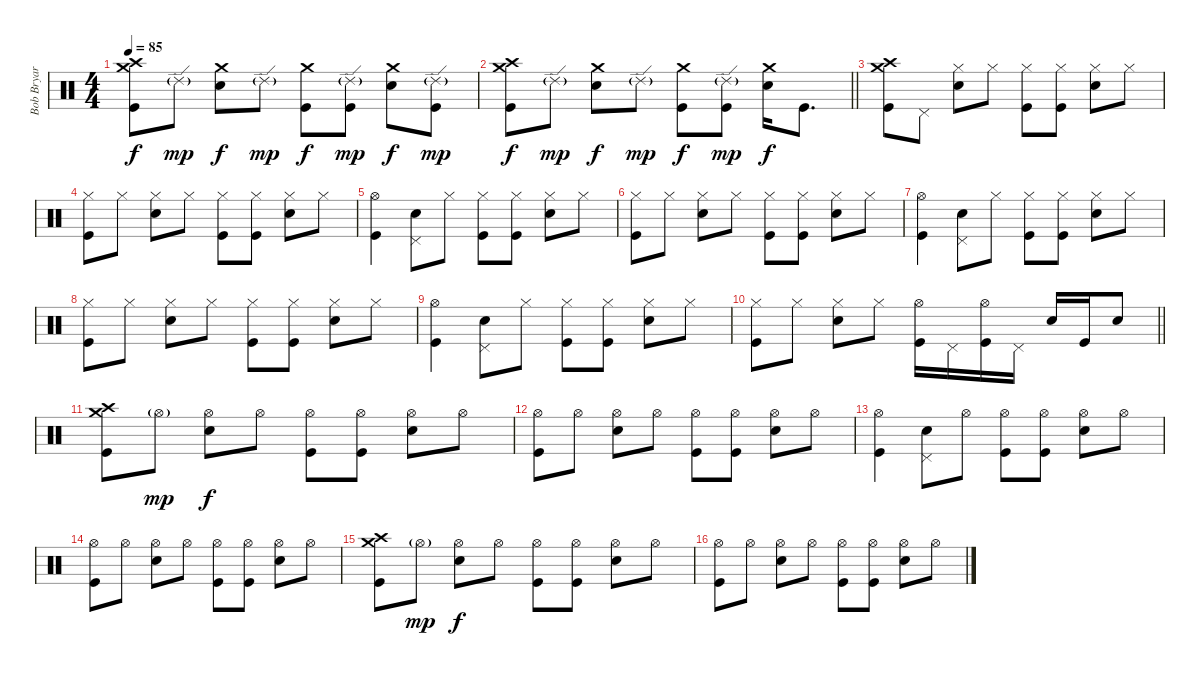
\track ("Bob Bryar [Drums]" "Bob Bryar ") {instrument percussion}
\staff {score}
\articulation defaults
\ts (4 4)
\tempo 85
\clef neutral
\ks c
("Crash high (hit)" "Crash medium (hit)" "Kick (hit)").8{dy f} "Ride (edge) 2"{g}.8{dy mp} ("Crash medium (hit)" "Electric Snare (hit)").8{dy f} "Ride (edge) 2"{g}.8{dy mp} ("Crash medium (hit)" "Kick (hit)").8{dy f} ("Ride (edge) 2"{g} "Kick (hit)").8{dy mp} ("Crash medium (hit)" "Electric Snare (hit)").8{dy f} ("Ride (edge) 2"{g} "Kick (hit)").8{dy mp} |
\barLineRight lightlight
("Crash high (hit)" "Crash medium (hit)" "Kick (hit)").8{dy f} "Ride (edge) 2"{g}.8{dy mp} ("Crash medium (hit)" "Electric Snare (hit)").8{dy f} "Ride (edge) 2"{g}.8{dy mp} ("Crash medium (hit)" "Kick (hit)").8{dy f} ("Ride (edge) 2"{g} "Kick (hit)").8{dy mp} ("Crash medium (hit)" "Electric Snare (hit)").16{dy f} "Kick (hit)".8{d} |
("Crash high (hit)" "Crash medium (hit)" "Kick (hit)").8 "Pedal Hi-Hat (hit)".8 ("Hi-Hat (closed)" "Electric Snare (hit)").8 "Hi-Hat (closed)".8 ("Hi-Hat (closed)" "Kick (hit)").8 ("Hi-Hat (closed)" "Kick (hit)").8 ("Hi-Hat (closed)" "Electric Snare (hit)").8 "Hi-Hat (closed)".8 |
("Hi-Hat (closed)" "Kick (hit)").8 "Hi-Hat (closed)".8 ("Hi-Hat (closed)" "Electric Snare (hit)").8 "Hi-Hat (closed)".8 ("Hi-Hat (closed)" "Kick (hit)").8 ("Hi-Hat (closed)" "Kick (hit)").8 ("Hi-Hat (closed)" "Electric Snare (hit)").8 "Hi-Hat (closed)".8 |
("Hi-Hat (open)" "Kick (hit)").4 ("Pedal Hi-Hat (hit)" "Electric Snare (hit)").8 "Hi-Hat (closed)".8 ("Hi-Hat (closed)" "Kick (hit)").8 ("Hi-Hat (closed)" "Kick (hit)").8 ("Hi-Hat (closed)" "Electric Snare (hit)").8 "Hi-Hat (closed)".8 |
("Hi-Hat (closed)" "Kick (hit)").8 "Hi-Hat (closed)".8 ("Hi-Hat (closed)" "Electric Snare (hit)").8 "Hi-Hat (closed)".8 ("Hi-Hat (closed)" "Kick (hit)").8 ("Hi-Hat (closed)" "Kick (hit)").8 ("Hi-Hat (closed)" "Electric Snare (hit)").8 "Hi-Hat (closed)".8 |
("Hi-Hat (open)" "Kick (hit)").4 ("Pedal Hi-Hat (hit)" "Electric Snare (hit)").8 "Hi-Hat (closed)".8 ("Hi-Hat (closed)" "Kick (hit)").8 ("Hi-Hat (closed)" "Kick (hit)").8 ("Hi-Hat (closed)" "Electric Snare (hit)").8 "Hi-Hat (closed)".8 |
("Hi-Hat (closed)" "Kick (hit)").8 "Hi-Hat (closed)".8 ("Hi-Hat (closed)" "Electric Snare (hit)").8 "Hi-Hat (closed)".8 ("Hi-Hat (closed)" "Kick (hit)").8 ("Hi-Hat (closed)" "Kick (hit)").8 ("Hi-Hat (closed)" "Electric Snare (hit)").8 "Hi-Hat (closed)".8 |
("Hi-Hat (open)" "Kick (hit)").4 ("Pedal Hi-Hat (hit)" "Electric Snare (hit)").8 "Hi-Hat (closed)".8 ("Hi-Hat (closed)" "Kick (hit)").8 ("Hi-Hat (closed)" "Kick (hit)").8 ("Hi-Hat (closed)" "Electric Snare (hit)").8 "Hi-Hat (closed)".8 |
\barLineRight lightlight
("Hi-Hat (closed)" "Kick (hit)").8 "Hi-Hat (closed)".8 ("Hi-Hat (closed)" "Electric Snare (hit)").8 "Hi-Hat (closed)".8 ("Hi-Hat (open)" "Kick (hit)").16 "Pedal Hi-Hat (hit)".16 ("Hi-Hat (open)" "Kick (hit)").16 "Pedal Hi-Hat (hit)".16 "Electric Snare (hit)".16 "Kick (hit)".16 "Electric Snare (hit)".8 |
("Crash high (hit)" "Crash medium (hit)" "Kick (hit)").8 "Hi-Hat (open)"{g}.8{dy mp} ("Hi-Hat (open)" "Electric Snare (hit)").8{dy f} "Hi-Hat (open)".8 ("Hi-Hat (open)" "Kick (hit)").8 ("Hi-Hat (open)" "Kick (hit)").8 ("Hi-Hat (open)" "Electric Snare (hit)").8 "Hi-Hat (open)".8 |
("Hi-Hat (open)" "Kick (hit)").8 "Hi-Hat (open)".8 ("Hi-Hat (open)" "Electric Snare (hit)").8 "Hi-Hat (open)".8 ("Hi-Hat (open)" "Kick (hit)").8 ("Hi-Hat (open)" "Kick (hit)").8 ("Hi-Hat (open)" "Electric Snare (hit)").8 "Hi-Hat (open)".8 |
("Hi-Hat (open)" "Kick (hit)").4 ("Pedal Hi-Hat (hit)" "Electric Snare (hit)").8 "Hi-Hat (open)".8 ("Hi-Hat (open)" "Kick (hit)").8 ("Hi-Hat (open)" "Kick (hit)").8 ("Hi-Hat (open)" "Electric Snare (hit)").8 "Hi-Hat (open)".8 |
("Hi-Hat (open)" "Kick (hit)").8 "Hi-Hat (open)".8 ("Hi-Hat (open)" "Electric Snare (hit)").8 "Hi-Hat (open)".8 ("Hi-Hat (open)" "Kick (hit)").8 ("Hi-Hat (open)" "Kick (hit)").8 ("Hi-Hat (open)" "Electric Snare (hit)").8 "Hi-Hat (open)".8 |
("Crash high (hit)" "Crash medium (hit)" "Kick (hit)").8 "Hi-Hat (open)"{g}.8{dy mp} ("Hi-Hat (open)" "Electric Snare (hit)").8{dy f} "Hi-Hat (open)".8 ("Hi-Hat (open)" "Kick (hit)").8 ("Hi-Hat (open)" "Kick (hit)").8 ("Hi-Hat (open)" "Electric Snare (hit)").8 "Hi-Hat (open)".8 |
("Hi-Hat (open)" "Kick (hit)").8 "Hi-Hat (open)".8 ("Hi-Hat (open)" "Electric Snare (hit)").8 "Hi-Hat (open)".8 ("Hi-Hat (open)" "Kick (hit)").8 ("Hi-Hat (open)" "Kick (hit)").8 ("Hi-Hat (open)" "Electric Snare (hit)").8 "Hi-Hat (open)".8
